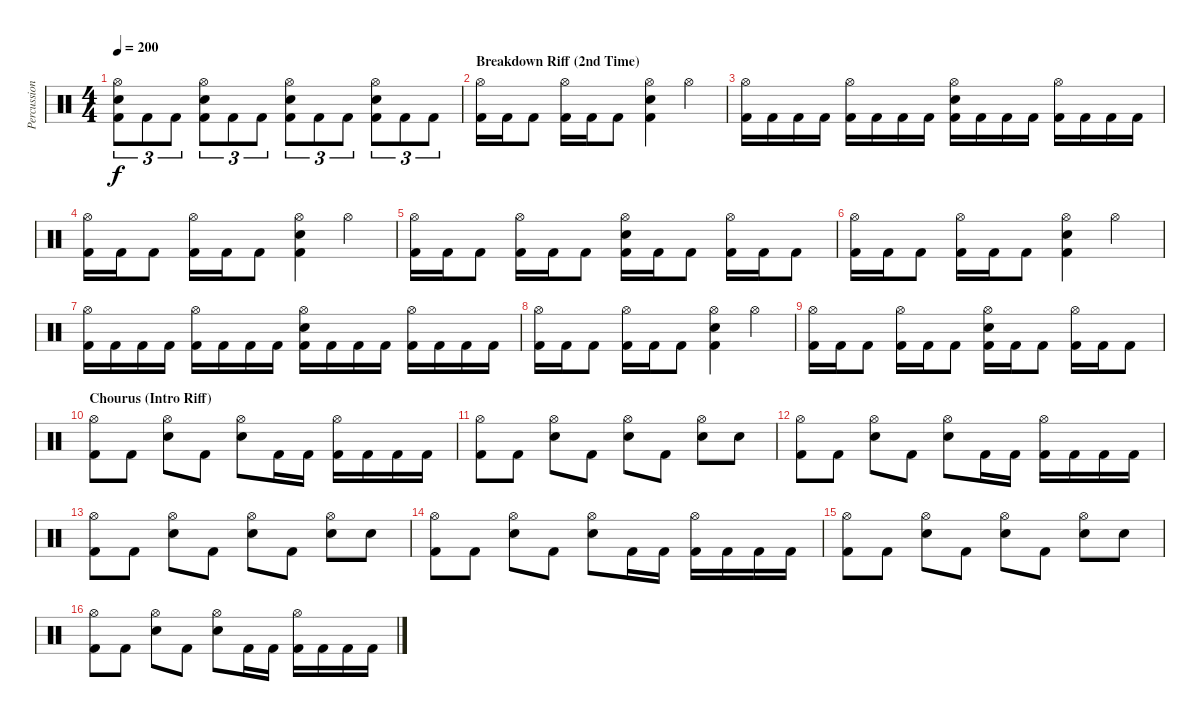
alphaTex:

\track ("Percussion" "Percussion") {instrument percussion}
\staff {score}
\articulation defaults
\ts (4 4)
\tempo 200
\clef neutral
\ks c
("Hi-Hat (open)" "Electric Snare (hit)" "Kick (hit) 2").8{tu (3 2) dy f} "Kick (hit) 2".8{tu (3 2)} "Kick (hit) 2".8{tu (3 2)} ("Hi-Hat (open)" "Electric Snare (hit)" "Kick (hit) 2").8{tu (3 2)} "Kick (hit) 2".8{tu (3 2)} "Kick (hit) 2".8{tu (3 2)} ("Hi-Hat (open)" "Electric Snare (hit)" "Kick (hit) 2").8{tu (3 2)} "Kick (hit) 2".8{tu (3 2)} "Kick (hit) 2".8{tu (3 2)} ("Hi-Hat (open)" "Electric Snare (hit)" "Kick (hit) 2").8{tu (3 2)} "Kick (hit) 2".8{tu (3 2)} "Kick (hit) 2".8{tu (3 2)} |
\section ("" "Breakdown Riff (2nd Time)")
("Hi-Hat (open)" "Kick (hit) 2").16 "Kick (hit) 2".16 "Kick (hit) 2".8 ("Hi-Hat (open)" "Kick (hit) 2").16 "Kick (hit) 2".16 "Kick (hit) 2".8 ("Hi-Hat (open)" "Electric Snare (hit)" "Kick (hit) 2").4 "Hi-Hat (open)".4 |
("Hi-Hat (open)" "Kick (hit) 2").16 "Kick (hit) 2".16 "Kick (hit) 2".16 "Kick (hit) 2".16 ("Hi-Hat (open)" "Kick (hit) 2").16 "Kick (hit) 2".16 "Kick (hit) 2".16 "Kick (hit) 2".16 ("Hi-Hat (open)" "Electric Snare (hit)" "Kick (hit) 2").16 "Kick (hit) 2".16 "Kick (hit) 2".16 "Kick (hit) 2".16 ("Hi-Hat (open)" "Kick (hit) 2").16 "Kick (hit) 2".16 "Kick (hit) 2".16 "Kick (hit) 2".16 |
("Hi-Hat (open)" "Kick (hit) 2").16 "Kick (hit) 2".16 "Kick (hit) 2".8 ("Hi-Hat (open)" "Kick (hit) 2").16 "Kick (hit) 2".16 "Kick (hit) 2".8 ("Hi-Hat (open)" "Electric Snare (hit)" "Kick (hit) 2").4 "Hi-Hat (open)".4 |
("Hi-Hat (open)" "Kick (hit) 2").16 "Kick (hit) 2".16 "Kick (hit) 2".8 ("Hi-Hat (open)" "Kick (hit) 2").16 "Kick (hit) 2".16 "Kick (hit) 2".8 ("Hi-Hat (open)" "Electric Snare (hit)" "Kick (hit) 2").16 "Kick (hit) 2".16 "Kick (hit) 2".8 ("Hi-Hat (open)" "Kick (hit) 2").16 "Kick (hit) 2".16 "Kick (hit) 2".8 |
("Hi-Hat (open)" "Kick (hit) 2").16 "Kick (hit) 2".16 "Kick (hit) 2".8 ("Hi-Hat (open)" "Kick (hit) 2").16 "Kick (hit) 2".16 "Kick (hit) 2".8 ("Hi-Hat (open)" "Electric Snare (hit)" "Kick (hit) 2").4 "Hi-Hat (open)".4 |
("Hi-Hat (open)" "Kick (hit) 2").16 "Kick (hit) 2".16 "Kick (hit) 2".16 "Kick (hit) 2".16 ("Hi-Hat (open)" "Kick (hit) 2").16 "Kick (hit) 2".16 "Kick (hit) 2".16 "Kick (hit) 2".16 ("Hi-Hat (open)" "Electric Snare (hit)" "Kick (hit) 2").16 "Kick (hit) 2".16 "Kick (hit) 2".16 "Kick (hit) 2".16 ("Hi-Hat (open)" "Kick (hit) 2").16 "Kick (hit) 2".16 "Kick (hit) 2".16 "Kick (hit) 2".16 |
("Hi-Hat (open)" "Kick (hit) 2").16 "Kick (hit) 2".16 "Kick (hit) 2".8 ("Hi-Hat (open)" "Kick (hit) 2").16 "Kick (hit) 2".16 "Kick (hit) 2".8 ("Hi-Hat (open)" "Electric Snare (hit)" "Kick (hit) 2").4 "Hi-Hat (open)".4 |
("Hi-Hat (open)" "Kick (hit) 2").16 "Kick (hit) 2".16 "Kick (hit) 2".8 ("Hi-Hat (open)" "Kick (hit) 2").16 "Kick (hit) 2".16 "Kick (hit) 2".8 ("Hi-Hat (open)" "Electric Snare (hit)" "Kick (hit) 2").16 "Kick (hit) 2".16 "Kick (hit) 2".8 ("Hi-Hat (open)" "Kick (hit) 2").16 "Kick (hit) 2".16 "Kick (hit) 2".8 |
\section ("" "Chourus (Intro Riff)")
("Hi-Hat (open)" "Kick (hit) 2").8 "Kick (hit) 2".8 ("Hi-Hat (open)" "Electric Snare (hit)").8 "Kick (hit) 2".8 ("Hi-Hat (open)" "Electric Snare (hit)").8 "Kick (hit) 2".16 "Kick (hit) 2".16 ("Hi-Hat (open)" "Kick (hit) 2").16 "Kick (hit) 2".16 "Kick (hit) 2".16 "Kick (hit) 2".16 |
("Hi-Hat (open)" "Kick (hit) 2").8 "Kick (hit) 2".8 ("Hi-Hat (open)" "Electric Snare (hit)").8 "Kick (hit) 2".8 ("Hi-Hat (open)" "Electric Snare (hit)").8 "Kick (hit) 2".8 ("Hi-Hat (open)" "Electric Snare (hit)").8 "Electric Snare (hit)".8 |
("Hi-Hat (open)" "Kick (hit) 2").8 "Kick (hit) 2".8 ("Hi-Hat (open)" "Electric Snare (hit)").8 "Kick (hit) 2".8 ("Hi-Hat (open)" "Electric Snare (hit)").8 "Kick (hit) 2".16 "Kick (hit) 2".16 ("Hi-Hat (open)" "Kick (hit) 2").16 "Kick (hit) 2".16 "Kick (hit) 2".16 "Kick (hit) 2".16 |
("Hi-Hat (open)" "Kick (hit) 2").8 "Kick (hit) 2".8 ("Hi-Hat (open)" "Electric Snare (hit)").8 "Kick (hit) 2".8 ("Hi-Hat (open)" "Electric Snare (hit)").8 "Kick (hit) 2".8 ("Hi-Hat (open)" "Electric Snare (hit)").8 "Electric Snare (hit)".8 |
("Hi-Hat (open)" "Kick (hit) 2").8 "Kick (hit) 2".8 ("Hi-Hat (open)" "Electric Snare (hit)").8 "Kick (hit) 2".8 ("Hi-Hat (open)" "Electric Snare (hit)").8 "Kick (hit) 2".16 "Kick (hit) 2".16 ("Hi-Hat (open)" "Kick (hit) 2").16 "Kick (hit) 2".16 "Kick (hit) 2".16 "Kick (hit) 2".16 |
("Hi-Hat (open)" "Kick (hit) 2").8 "Kick (hit) 2".8 ("Hi-Hat (open)" "Electric Snare (hit)").8 "Kick (hit) 2".8 ("Hi-Hat (open)" "Electric Snare (hit)").8 "Kick (hit) 2".8 ("Hi-Hat (open)" "Electric Snare (hit)").8 "Electric Snare (hit)".8 |
("Hi-Hat (open)" "Kick (hit) 2").8 "Kick (hit) 2".8 ("Hi-Hat (open)" "Electric Snare (hit)").8 "Kick (hit) 2".8 ("Hi-Hat (open)" "Electric Snare (hit)").8 "Kick (hit) 2".16 "Kick (hit) 2".16 ("Hi-Hat (open)" "Kick (hit) 2").16 "Kick (hit) 2".16 "Kick (hit) 2".16 "Kick (hit) 2".16
